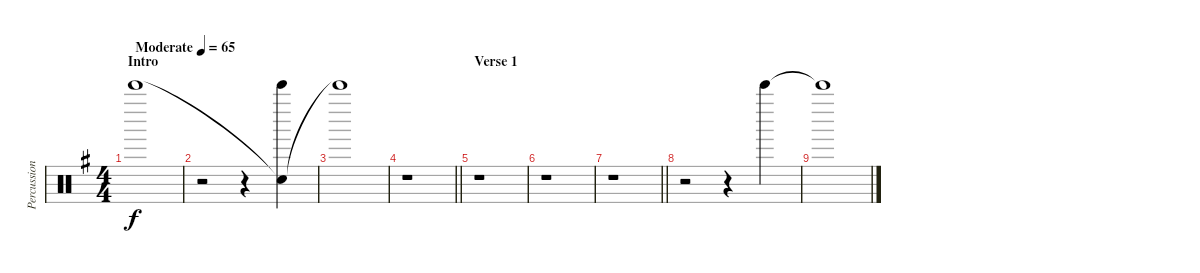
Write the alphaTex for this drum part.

\track ("Percussion" "Percussion") {instrument percussion}
\staff {score}
\articulation defaults
\ts (4 4)
\section ("" "Intro")
\tempo (65 "Moderate")
\clef neutral
\ks g "Bell Tree (hit)".1{dy f}
|
r.2 r.4 ("Snare (hit)"{t} "Bell Tree (hit)").4 |
"Bell Tree (hit)"{t}.1 |
\barLineRight lightlight
r.1 |
\section ("" "Verse 1")
r.1 |
r.1 |
\barLineRight lightlight
r.1 |
r.2 r.4 "Bell Tree (hit)".4 |
"Bell Tree (hit)"{t}.1
